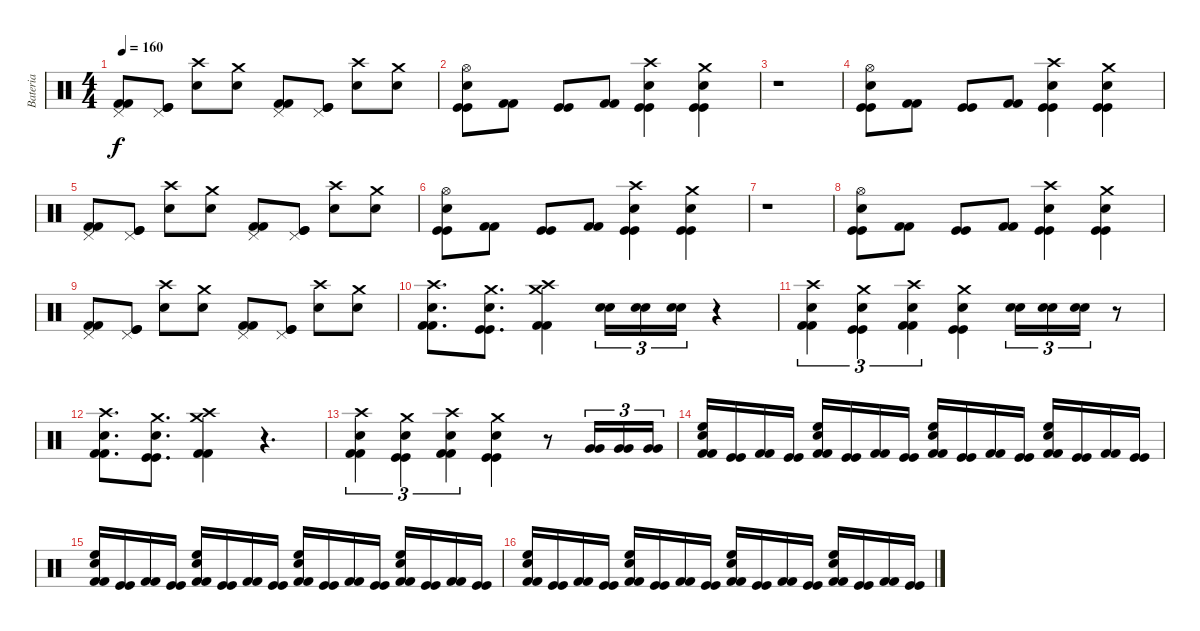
\track ("Bateria" "Bateria") {instrument percussion}
\staff {score}
\articulation defaults
\ts (4 4)
\tempo 160
\clef neutral
\ks c
("Kick (hit) 2" "Kick (hit) 2" "Pedal Hi-Hat (hit)").8{dy f} ("Kick (hit)" "Kick (hit)" "Pedal Hi-Hat (hit)").8 ("Snare (hit) 2" "Crash high (hit)").8 ("Snare (hit) 2" "Crash medium (hit)").8 ("Kick (hit) 2" "Kick (hit) 2" "Pedal Hi-Hat (hit)").8 ("Kick (hit)" "Kick (hit)" "Pedal Hi-Hat (hit)").8 ("Snare (hit) 2" "Crash high (hit)").8 ("Snare (hit) 2" "Crash medium (hit)").8 |
("Kick (hit)" "Kick (hit)" "Snare (hit) 2" "Hi-Hat (open)").8 ("Kick (hit) 2" "Kick (hit) 2").8 ("Kick (hit)" "Kick (hit)").8 ("Kick (hit) 2" "Kick (hit) 2").8 ("Kick (hit)" "Kick (hit)" "Snare (hit) 2" "Crash high (hit)").4 ("Kick (hit)" "Kick (hit)" "Snare (hit) 2" "Crash medium (hit)").4 |
r.1 |
("Kick (hit)" "Kick (hit)" "Snare (hit) 2" "Hi-Hat (open)").8 ("Kick (hit) 2" "Kick (hit) 2").8 ("Kick (hit)" "Kick (hit)").8 ("Kick (hit) 2" "Kick (hit) 2").8 ("Kick (hit)" "Kick (hit)" "Snare (hit) 2" "Crash high (hit)").4 ("Kick (hit)" "Kick (hit)" "Snare (hit) 2" "Crash medium (hit)").4 |
("Kick (hit) 2" "Kick (hit) 2" "Pedal Hi-Hat (hit)").8 ("Kick (hit)" "Kick (hit)" "Pedal Hi-Hat (hit)").8 ("Snare (hit) 2" "Crash high (hit)").8 ("Snare (hit) 2" "Crash medium (hit)").8 ("Kick (hit) 2" "Kick (hit) 2" "Pedal Hi-Hat (hit)").8 ("Kick (hit)" "Kick (hit)" "Pedal Hi-Hat (hit)").8 ("Snare (hit) 2" "Crash high (hit)").8 ("Snare (hit) 2" "Crash medium (hit)").8 |
("Kick (hit)" "Kick (hit)" "Snare (hit) 2" "Hi-Hat (open)").8 ("Kick (hit) 2" "Kick (hit) 2").8 ("Kick (hit)" "Kick (hit)").8 ("Kick (hit) 2" "Kick (hit) 2").8 ("Kick (hit)" "Kick (hit)" "Snare (hit) 2" "Crash high (hit)").4 ("Kick (hit)" "Kick (hit)" "Snare (hit) 2" "Crash medium (hit)").4 |
r.1 |
("Kick (hit)" "Kick (hit)" "Snare (hit) 2" "Hi-Hat (open)").8 ("Kick (hit) 2" "Kick (hit) 2").8 ("Kick (hit)" "Kick (hit)").8 ("Kick (hit) 2" "Kick (hit) 2").8 ("Kick (hit)" "Kick (hit)" "Snare (hit) 2" "Crash high (hit)").4 ("Kick (hit)" "Kick (hit)" "Snare (hit) 2" "Crash medium (hit)").4 |
("Kick (hit) 2" "Kick (hit) 2" "Pedal Hi-Hat (hit)").8 ("Kick (hit)" "Kick (hit)" "Pedal Hi-Hat (hit)").8 ("Snare (hit) 2" "Crash high (hit)").8 ("Snare (hit) 2" "Crash medium (hit)").8 ("Kick (hit) 2" "Kick (hit) 2" "Pedal Hi-Hat (hit)").8 ("Kick (hit)" "Kick (hit)" "Pedal Hi-Hat (hit)").8 ("Snare (hit) 2" "Crash high (hit)").8 ("Snare (hit) 2" "Crash medium (hit)").8 |
("Kick (hit) 2" "Kick (hit) 2" "Snare (hit) 2" "Crash high (hit)").8{d} ("Kick (hit)" "Kick (hit)" "Snare (hit) 2" "Crash medium (hit)").8{d} ("Kick (hit) 2" "Kick (hit) 2" "Crash medium (hit)" "Crash high (hit)").4 ("Snare (hit) 2" "Snare (hit) 2").16{tu (3 2)} ("Snare (hit) 2" "Snare (hit) 2").16{tu (3 2)} ("Snare (hit) 2" "Snare (hit) 2").16{tu (3 2)} r.4 |
("Kick (hit) 2" "Kick (hit) 2" "Snare (hit) 2" "Crash high (hit)").4{tu (3 2)} ("Kick (hit)" "Kick (hit)" "Snare (hit) 2" "Crash medium (hit)").4{tu (3 2)} ("Kick (hit) 2" "Kick (hit) 2" "Snare (hit) 2" "Crash high (hit)").4{tu (3 2)} ("Kick (hit)" "Kick (hit)" "Snare (hit) 2" "Crash medium (hit)").4 ("Snare (hit) 2" "Snare (hit) 2").16{tu (3 2)} ("Snare (hit) 2" "Snare (hit) 2").16{tu (3 2)} ("Snare (hit) 2" "Snare (hit) 2").16{tu (3 2)} r.8 |
("Kick (hit) 2" "Kick (hit) 2" "Snare (hit) 2" "Crash high (hit)").8{d} ("Kick (hit)" "Kick (hit)" "Snare (hit) 2" "Crash medium (hit)").8{d} ("Kick (hit) 2" "Kick (hit) 2" "Crash medium (hit)" "Crash high (hit)").4 r.4{d} |
("Kick (hit) 2" "Kick (hit) 2" "Snare (hit) 2" "Crash high (hit)").4{tu (3 2)} ("Kick (hit)" "Kick (hit)" "Snare (hit) 2" "Crash medium (hit)").4{tu (3 2)} ("Kick (hit) 2" "Kick (hit) 2" "Snare (hit) 2" "Crash high (hit)").4{tu (3 2)} ("Kick (hit)" "Kick (hit)" "Snare (hit) 2" "Crash medium (hit)").4 r.8 ("Very Low Tom (hit)" "Very Low Tom (hit)").16{tu (3 2)} ("Very Low Tom (hit)" "Very Low Tom (hit)").16{tu (3 2)} ("Very Low Tom (hit)" "Very Low Tom (hit)").16{tu (3 2)} |
("Kick (hit) 2" "Kick (hit) 2" "Snare (hit) 2" "High Floor Tom (hit)").16 ("Kick (hit)" "Kick (hit)").16 ("Kick (hit) 2" "Kick (hit) 2").16 ("Kick (hit)" "Kick (hit)").16 ("Kick (hit) 2" "Kick (hit) 2" "Snare (hit) 2" "High Floor Tom (hit)").16 ("Kick (hit)" "Kick (hit)").16 ("Kick (hit) 2" "Kick (hit) 2").16 ("Kick (hit)" "Kick (hit)").16 ("Kick (hit) 2" "Kick (hit) 2" "Snare (hit) 2" "High Floor Tom (hit)").16 ("Kick (hit)" "Kick (hit)").16 ("Kick (hit) 2" "Kick (hit) 2").16 ("Kick (hit)" "Kick (hit)").16 ("Kick (hit) 2" "Kick (hit) 2" "Snare (hit) 2" "High Floor Tom (hit)").16 ("Kick (hit)" "Kick (hit)").16 ("Kick (hit) 2" "Kick (hit) 2").16 ("Kick (hit)" "Kick (hit)").16 |
("Kick (hit) 2" "Kick (hit) 2" "Snare (hit) 2" "High Floor Tom (hit)").16 ("Kick (hit)" "Kick (hit)").16 ("Kick (hit) 2" "Kick (hit) 2").16 ("Kick (hit)" "Kick (hit)").16 ("Kick (hit) 2" "Kick (hit) 2" "Snare (hit) 2" "High Floor Tom (hit)").16 ("Kick (hit)" "Kick (hit)").16 ("Kick (hit) 2" "Kick (hit) 2").16 ("Kick (hit)" "Kick (hit)").16 ("Kick (hit) 2" "Kick (hit) 2" "Snare (hit) 2" "High Floor Tom (hit)").16 ("Kick (hit)" "Kick (hit)").16 ("Kick (hit) 2" "Kick (hit) 2").16 ("Kick (hit)" "Kick (hit)").16 ("Kick (hit) 2" "Kick (hit) 2" "Snare (hit) 2" "High Floor Tom (hit)").16 ("Kick (hit)" "Kick (hit)").16 ("Kick (hit) 2" "Kick (hit) 2").16 ("Kick (hit)" "Kick (hit)").16 |
("Kick (hit) 2" "Kick (hit) 2" "Snare (hit) 2" "High Floor Tom (hit)").16 ("Kick (hit)" "Kick (hit)").16 ("Kick (hit) 2" "Kick (hit) 2").16 ("Kick (hit)" "Kick (hit)").16 ("Kick (hit) 2" "Kick (hit) 2" "Snare (hit) 2" "High Floor Tom (hit)").16 ("Kick (hit)" "Kick (hit)").16 ("Kick (hit) 2" "Kick (hit) 2").16 ("Kick (hit)" "Kick (hit)").16 ("Kick (hit) 2" "Kick (hit) 2" "Snare (hit) 2" "High Floor Tom (hit)").16 ("Kick (hit)" "Kick (hit)").16 ("Kick (hit) 2" "Kick (hit) 2").16 ("Kick (hit)" "Kick (hit)").16 ("Kick (hit) 2" "Kick (hit) 2" "Snare (hit) 2" "High Floor Tom (hit)").16 ("Kick (hit)" "Kick (hit)").16 ("Kick (hit) 2" "Kick (hit) 2").16 ("Kick (hit)" "Kick (hit)").16
